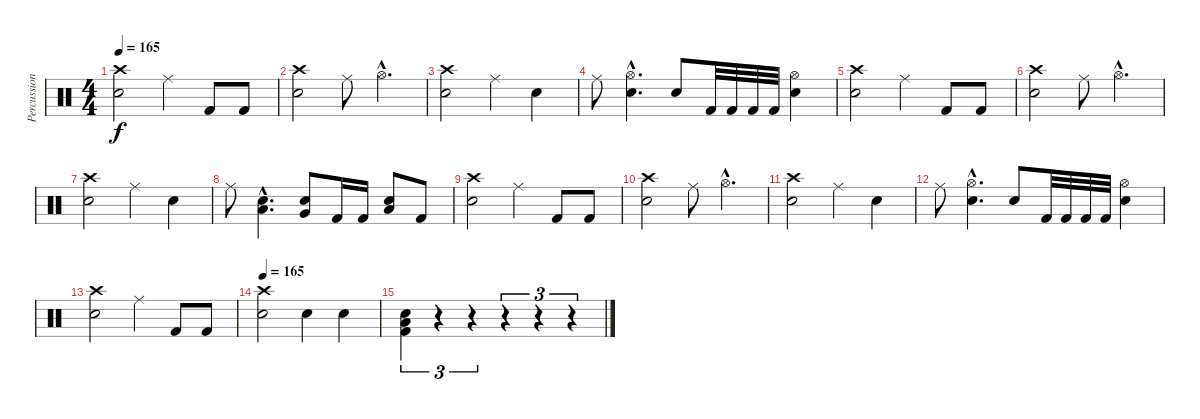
\track ("Percussion" "Percussion") {instrument percussion}
\staff {score}
\articulation defaults
\ts (4 4)
\tempo 165
\tempo 128
\tempo 165
\clef neutral
\ks c
("Crash high (hit)" "Electric Snare (hit)").2{dy f} "Ride (middle)".4 "Kick (hit) 2".8 "Kick (hit) 2".8 |
("Crash high (hit)" "Electric Snare (hit)").2 "Ride (middle)".8 "Hi-Hat (open)"{hac}.4{d} |
("Crash high (hit)" "Electric Snare (hit)").2 "Ride (middle)".4 "Electric Snare (hit)".4 |
"Ride (middle)".8 ("Hi-Hat (open)"{hac} "Electric Snare (hit)"{hac}).4{d} "Electric Snare (hit)".8 "Kick (hit) 2".32 "Kick (hit) 2".32 "Kick (hit) 2".32 "Kick (hit) 2".32 ("Hi-Hat (open)" "Electric Snare (hit)").4 |
("Crash high (hit)" "Electric Snare (hit)").2 "Ride (middle)".4 "Kick (hit) 2".8 "Kick (hit) 2".8 |
("Crash high (hit)" "Electric Snare (hit)").2 "Ride (middle)".8 "Hi-Hat (open)"{hac}.4{d} |
("Crash high (hit)" "Electric Snare (hit)").2 "Ride (middle)".4 "Electric Snare (hit)".4 |
"Ride (middle)".8 ("Low Floor Tom (hit)"{hac} "Electric Snare (hit)"{hac}).4{d} ("Very Low Tom (hit)" "Electric Snare (hit)").8 "Kick (hit) 2".16 "Kick (hit) 2".16 ("Low Floor Tom (hit)" "Electric Snare (hit)").8 "Kick (hit) 2".8 |
("Crash high (hit)" "Electric Snare (hit)").2 "Ride (middle)".4 "Kick (hit) 2".8 "Kick (hit) 2".8 |
("Crash high (hit)" "Electric Snare (hit)").2 "Ride (middle)".8 "Hi-Hat (open)"{hac}.4{d} |
("Crash high (hit)" "Electric Snare (hit)").2 "Ride (middle)".4 "Electric Snare (hit)".4 |
"Ride (middle)".8 ("Hi-Hat (open)"{hac} "Electric Snare (hit)"{hac}).4{d} "Electric Snare (hit)".8 "Kick (hit) 2".32 "Kick (hit) 2".32 "Kick (hit) 2".32 "Kick (hit) 2".32 ("Hi-Hat (open)" "Electric Snare (hit)").4 |
("Crash high (hit)" "Electric Snare (hit)").2 "Ride (middle)".4 "Kick (hit) 2".8 "Kick (hit) 2".8 |
\tempo 165
("Crash high (hit)" "Electric Snare (hit)").2 "Electric Snare (hit)".4 "Electric Snare (hit)".4 |
("Low Floor Tom (hit)" "Electric Snare (hit)" "Kick (hit) 2").4{tu (3 2)} r.4{tu (3 2)} r.4{tu (3 2)} r.4{tu (3 2)} r.4{tu (3 2)} r.4{tu (3 2)}
